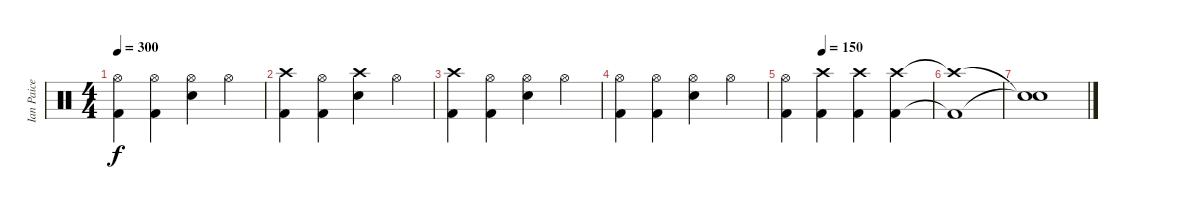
\track ("Ian Paice" "Ian Paice") {instrument percussion}
\staff {score}
\articulation defaults
\ts (4 4)
\tempo 300
\clef neutral
\ks c
("Hi-Hat (open)" "Kick (hit) 2").4{dy f} ("Hi-Hat (open)" "Kick (hit) 2").4 ("Hi-Hat (open)" "Electric Snare (hit)").4 "Hi-Hat (open)".4 |
("Crash high (hit)" "Kick (hit) 2").4 ("Hi-Hat (open)" "Kick (hit) 2").4 ("Crash high (hit)" "Electric Snare (hit)").4 "Hi-Hat (open)".4 |
("Crash high (hit)" "Kick (hit) 2").4 ("Hi-Hat (open)" "Kick (hit) 2").4 ("Hi-Hat (open)" "Electric Snare (hit)").4 "Hi-Hat (open)".4 |
("Hi-Hat (open)" "Kick (hit) 2").4 ("Hi-Hat (open)" "Kick (hit) 2").4 ("Hi-Hat (open)" "Electric Snare (hit)").4 "Hi-Hat (open)".4 |
\tempo (150 0.25)
("Hi-Hat (open)" "Kick (hit) 2").4 ("Crash high (hit)" "Kick (hit) 2").4 ("Crash high (hit)" "Kick (hit) 2").4 ("Crash high (hit)" "Kick (hit) 2").4 |
("Crash high (hit)"{t} "Kick (hit) 2"{t}).1 |
("Snare (hit)"{t} "Snare (hit)"{t}).1
